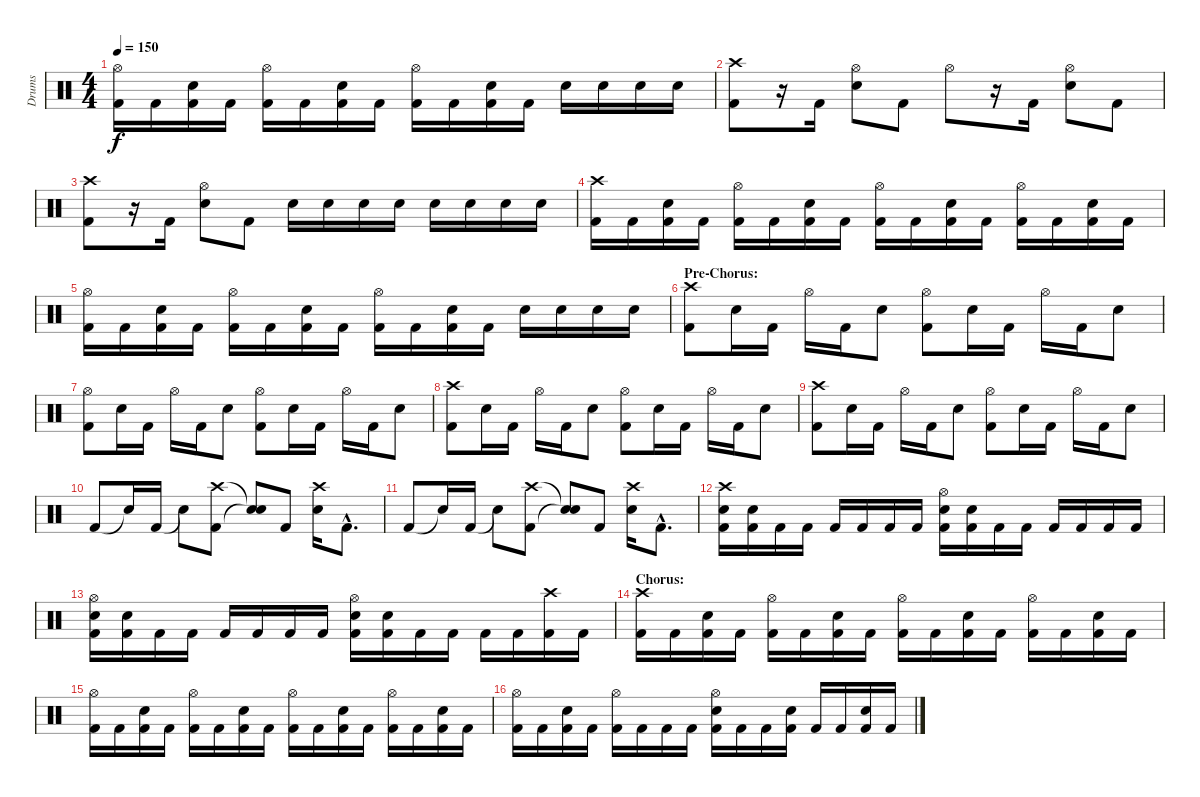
\track ("Drums" "Drums") {instrument percussion}
\staff {score}
\articulation defaults
\ts (4 4)
\tempo 150
\clef neutral
\ks c
("Hi-Hat (open)" "Kick (hit) 2").16{dy f} "Kick (hit) 2".16 ("Electric Snare (hit)" "Kick (hit) 2").16 "Kick (hit) 2".16 ("Hi-Hat (open)" "Kick (hit) 2").16 "Kick (hit) 2".16 ("Electric Snare (hit)" "Kick (hit) 2").16 "Kick (hit) 2".16 ("Hi-Hat (open)" "Kick (hit) 2").16 "Kick (hit) 2".16 ("Electric Snare (hit)" "Kick (hit) 2").16 "Kick (hit) 2".16 "Electric Snare (hit)".16 "Electric Snare (hit)".16 "Electric Snare (hit)".16 "Electric Snare (hit)".16 |
("Crash high (hit)" "Kick (hit) 2").8 r.16 "Kick (hit) 2".16 ("Hi-Hat (open)" "Electric Snare (hit)").8 "Kick (hit) 2".8 "Hi-Hat (open)".8 r.16 "Kick (hit) 2".16 ("Hi-Hat (open)" "Electric Snare (hit)").8 "Kick (hit) 2".8 |
("Crash high (hit)" "Kick (hit) 2").8 r.16 "Kick (hit) 2".16 ("Hi-Hat (open)" "Electric Snare (hit)").8 "Kick (hit) 2".8 "Electric Snare (hit)".16 "Electric Snare (hit)".16 "Electric Snare (hit)".16 "Electric Snare (hit)".16 "Electric Snare (hit)".16 "Electric Snare (hit)".16 "Electric Snare (hit)".16 "Electric Snare (hit)".16 |
("Crash high (hit)" "Kick (hit) 2").16 "Kick (hit) 2".16 ("Electric Snare (hit)" "Kick (hit) 2").16 "Kick (hit) 2".16 ("Hi-Hat (open)" "Kick (hit) 2").16 "Kick (hit) 2".16 ("Electric Snare (hit)" "Kick (hit) 2").16 "Kick (hit) 2".16 ("Hi-Hat (open)" "Kick (hit) 2").16 "Kick (hit) 2".16 ("Electric Snare (hit)" "Kick (hit) 2").16 "Kick (hit) 2".16 ("Hi-Hat (open)" "Kick (hit) 2").16 "Kick (hit) 2".16 ("Electric Snare (hit)" "Kick (hit) 2").16 "Kick (hit) 2".16 |
("Hi-Hat (open)" "Kick (hit) 2").16 "Kick (hit) 2".16 ("Electric Snare (hit)" "Kick (hit) 2").16 "Kick (hit) 2".16 ("Hi-Hat (open)" "Kick (hit) 2").16 "Kick (hit) 2".16 ("Electric Snare (hit)" "Kick (hit) 2").16 "Kick (hit) 2".16 ("Hi-Hat (open)" "Kick (hit) 2").16 "Kick (hit) 2".16 ("Electric Snare (hit)" "Kick (hit) 2").16 "Kick (hit) 2".16 "Electric Snare (hit)".16 "Electric Snare (hit)".16 "Electric Snare (hit)".16 "Electric Snare (hit)".16 |
\section ("" "Pre-Chorus:")
("Crash high (hit)" "Kick (hit) 2").8 "Electric Snare (hit)".16 "Kick (hit) 2".16 "Hi-Hat (open)".16 "Kick (hit) 2".16 "Electric Snare (hit)".8 ("Hi-Hat (open)" "Kick (hit) 2").8 "Electric Snare (hit)".16 "Kick (hit) 2".16 "Hi-Hat (open)".16 "Kick (hit) 2".16 "Electric Snare (hit)".8 |
("Hi-Hat (open)" "Kick (hit) 2").8 "Electric Snare (hit)".16 "Kick (hit) 2".16 "Hi-Hat (open)".16 "Kick (hit) 2".16 "Electric Snare (hit)".8 ("Hi-Hat (open)" "Kick (hit) 2").8 "Electric Snare (hit)".16 "Kick (hit) 2".16 "Hi-Hat (open)".16 "Kick (hit) 2".16 "Electric Snare (hit)".8 |
("Crash high (hit)" "Kick (hit) 2").8 "Electric Snare (hit)".16 "Kick (hit) 2".16 "Hi-Hat (open)".16 "Kick (hit) 2".16 "Electric Snare (hit)".8 ("Hi-Hat (open)" "Kick (hit) 2").8 "Electric Snare (hit)".16 "Kick (hit) 2".16 "Hi-Hat (open)".16 "Kick (hit) 2".16 "Electric Snare (hit)".8 |
("Crash high (hit)" "Kick (hit) 2").8 "Electric Snare (hit)".16 "Kick (hit) 2".16 "Hi-Hat (open)".16 "Kick (hit) 2".16 "Electric Snare (hit)".8 ("Hi-Hat (open)" "Kick (hit) 2").8 "Electric Snare (hit)".16 "Kick (hit) 2".16 "Hi-Hat (open)".16 "Kick (hit) 2".16 "Electric Snare (hit)".8 |
"Kick (hit) 2".8 "Snare (hit)"{t}.16 "Kick (hit) 2".16 "Snare (hit)"{t}.8 ("Crash high (hit)" "Kick (hit) 2").8 ("Snare (hit)"{t} "Snare (hit)"{t}).8 "Kick (hit) 2".8 ("Crash high (hit)" "Electric Snare (hit)").16 "Kick (hit) 2"{hac}.8{d} |
"Kick (hit) 2".8 "Snare (hit)"{t}.16 "Kick (hit) 2".16 "Snare (hit)"{t}.8 ("Crash high (hit)" "Kick (hit) 2").8 ("Snare (hit)"{t} "Snare (hit)"{t}).8 "Kick (hit) 2".8 ("Crash high (hit)" "Electric Snare (hit)").16 "Kick (hit) 2"{hac}.8{d} |
("Crash high (hit)" "Electric Snare (hit)" "Kick (hit) 2").16 ("Electric Snare (hit)" "Kick (hit) 2").16 "Kick (hit) 2".16 "Kick (hit) 2".16 "Kick (hit) 2".16 "Kick (hit) 2".16 "Kick (hit) 2".16 "Kick (hit) 2".16 ("Hi-Hat (open)" "Electric Snare (hit)" "Kick (hit) 2").16 ("Electric Snare (hit)" "Kick (hit) 2").16 "Kick (hit) 2".16 "Kick (hit) 2".16 "Kick (hit) 2".16 "Kick (hit) 2".16 "Kick (hit) 2".16 "Kick (hit) 2".16 |
("Hi-Hat (open)" "Electric Snare (hit)" "Kick (hit) 2").16 ("Electric Snare (hit)" "Kick (hit) 2").16 "Kick (hit) 2".16 "Kick (hit) 2".16 "Kick (hit) 2".16 "Kick (hit) 2".16 "Kick (hit) 2".16 "Kick (hit) 2".16 ("Hi-Hat (open)" "Electric Snare (hit)" "Kick (hit) 2").16 ("Electric Snare (hit)" "Kick (hit) 2").16 "Kick (hit) 2".16 "Kick (hit) 2".16 "Kick (hit) 2".16 "Kick (hit) 2".16 ("Crash high (hit)" "Kick (hit) 2").16 "Kick (hit) 2".16 |
\section ("" "Chorus:")
("Crash high (hit)" "Kick (hit) 2").16 "Kick (hit) 2".16 ("Electric Snare (hit)" "Kick (hit) 2").16 "Kick (hit) 2".16 ("Hi-Hat (open)" "Kick (hit) 2").16 "Kick (hit) 2".16 ("Electric Snare (hit)" "Kick (hit) 2").16 "Kick (hit) 2".16 ("Hi-Hat (open)" "Kick (hit) 2").16 "Kick (hit) 2".16 ("Electric Snare (hit)" "Kick (hit) 2").16 "Kick (hit) 2".16 ("Hi-Hat (open)" "Kick (hit) 2").16 "Kick (hit) 2".16 ("Electric Snare (hit)" "Kick (hit) 2").16 "Kick (hit) 2".16 |
("Hi-Hat (open)" "Kick (hit) 2").16 "Kick (hit) 2".16 ("Electric Snare (hit)" "Kick (hit) 2").16 "Kick (hit) 2".16 ("Hi-Hat (open)" "Kick (hit) 2").16 "Kick (hit) 2".16 ("Electric Snare (hit)" "Kick (hit) 2").16 "Kick (hit) 2".16 ("Hi-Hat (open)" "Kick (hit) 2").16 "Kick (hit) 2".16 ("Electric Snare (hit)" "Kick (hit) 2").16 "Kick (hit) 2".16 ("Hi-Hat (open)" "Kick (hit) 2").16 "Kick (hit) 2".16 ("Electric Snare (hit)" "Kick (hit) 2").16 "Kick (hit) 2".16 |
("Hi-Hat (open)" "Kick (hit) 2").16 "Kick (hit) 2".16 ("Electric Snare (hit)" "Kick (hit) 2").16 "Kick (hit) 2".16 ("Hi-Hat (open)" "Kick (hit) 2").16 "Kick (hit) 2".16 "Kick (hit) 2".16 "Kick (hit) 2".16 ("Hi-Hat (open)" "Electric Snare (hit)" "Kick (hit) 2").16 "Kick (hit) 2".16 "Kick (hit) 2".16 ("Electric Snare (hit)" "Kick (hit) 2").16 "Kick (hit) 2".16 "Kick (hit) 2".16 ("Electric Snare (hit)" "Kick (hit) 2").16 "Kick (hit) 2".16
